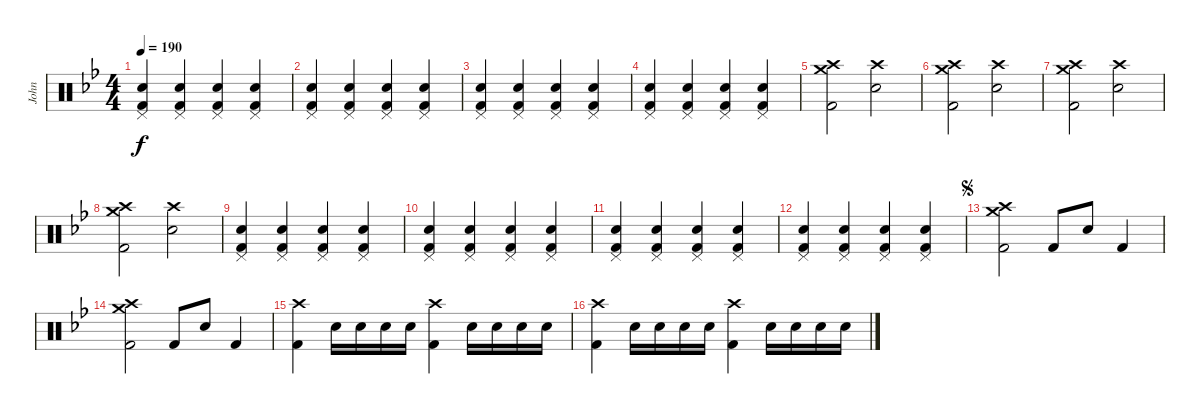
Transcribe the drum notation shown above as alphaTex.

\track ("John" "John") {instrument percussion}
\staff {score}
\articulation defaults
\ts (4 4)
\tempo 190
\clef neutral
\ks bb
("Electric Snare (hit)" "Pedal Hi-Hat (hit)" "Kick (hit) 2").4{dy f} ("Electric Snare (hit)" "Pedal Hi-Hat (hit)" "Kick (hit) 2").4 ("Electric Snare (hit)" "Pedal Hi-Hat (hit)" "Kick (hit) 2").4 ("Electric Snare (hit)" "Pedal Hi-Hat (hit)" "Kick (hit) 2").4 |
("Electric Snare (hit)" "Pedal Hi-Hat (hit)" "Kick (hit) 2").4 ("Electric Snare (hit)" "Pedal Hi-Hat (hit)" "Kick (hit) 2").4 ("Electric Snare (hit)" "Pedal Hi-Hat (hit)" "Kick (hit) 2").4 ("Electric Snare (hit)" "Pedal Hi-Hat (hit)" "Kick (hit) 2").4 |
("Electric Snare (hit)" "Pedal Hi-Hat (hit)" "Kick (hit) 2").4 ("Electric Snare (hit)" "Pedal Hi-Hat (hit)" "Kick (hit) 2").4 ("Electric Snare (hit)" "Pedal Hi-Hat (hit)" "Kick (hit) 2").4 ("Electric Snare (hit)" "Pedal Hi-Hat (hit)" "Kick (hit) 2").4 |
("Electric Snare (hit)" "Pedal Hi-Hat (hit)" "Kick (hit) 2").4 ("Electric Snare (hit)" "Pedal Hi-Hat (hit)" "Kick (hit) 2").4 ("Electric Snare (hit)" "Pedal Hi-Hat (hit)" "Kick (hit) 2").4 ("Electric Snare (hit)" "Pedal Hi-Hat (hit)" "Kick (hit) 2").4 |
("Crash medium (hit)" "Crash high (hit)" "Kick (hit) 2").2 ("Crash high (hit)" "Electric Snare (hit)").2 |
("Crash medium (hit)" "Crash high (hit)" "Kick (hit) 2").2 ("Crash high (hit)" "Electric Snare (hit)").2 |
("Crash medium (hit)" "Crash high (hit)" "Kick (hit) 2").2 ("Crash high (hit)" "Electric Snare (hit)").2 |
("Crash medium (hit)" "Crash high (hit)" "Kick (hit) 2").2 ("Crash high (hit)" "Electric Snare (hit)").2 |
("Electric Snare (hit)" "Pedal Hi-Hat (hit)" "Kick (hit) 2").4 ("Electric Snare (hit)" "Pedal Hi-Hat (hit)" "Kick (hit) 2").4 ("Electric Snare (hit)" "Pedal Hi-Hat (hit)" "Kick (hit) 2").4 ("Electric Snare (hit)" "Pedal Hi-Hat (hit)" "Kick (hit) 2").4 |
("Electric Snare (hit)" "Pedal Hi-Hat (hit)" "Kick (hit) 2").4 ("Electric Snare (hit)" "Pedal Hi-Hat (hit)" "Kick (hit) 2").4 ("Electric Snare (hit)" "Pedal Hi-Hat (hit)" "Kick (hit) 2").4 ("Electric Snare (hit)" "Pedal Hi-Hat (hit)" "Kick (hit) 2").4 |
("Electric Snare (hit)" "Pedal Hi-Hat (hit)" "Kick (hit) 2").4 ("Electric Snare (hit)" "Pedal Hi-Hat (hit)" "Kick (hit) 2").4 ("Electric Snare (hit)" "Pedal Hi-Hat (hit)" "Kick (hit) 2").4 ("Electric Snare (hit)" "Pedal Hi-Hat (hit)" "Kick (hit) 2").4 |
("Electric Snare (hit)" "Pedal Hi-Hat (hit)" "Kick (hit) 2").4 ("Electric Snare (hit)" "Pedal Hi-Hat (hit)" "Kick (hit) 2").4 ("Electric Snare (hit)" "Pedal Hi-Hat (hit)" "Kick (hit) 2").4 ("Electric Snare (hit)" "Pedal Hi-Hat (hit)" "Kick (hit) 2").4 |
\jump segno
("Crash high (hit)" "Crash medium (hit)" "Kick (hit) 2").2 "Kick (hit) 2".8 "Electric Snare (hit)".8 "Kick (hit) 2".4 |
("Crash high (hit)" "Crash medium (hit)" "Kick (hit) 2").2 "Kick (hit) 2".8 "Electric Snare (hit)".8 "Kick (hit) 2".4 |
("Crash high (hit)" "Kick (hit) 2").4 "Electric Snare (hit)".16 "Electric Snare (hit)".16 "Electric Snare (hit)".16 "Electric Snare (hit)".16 ("Crash high (hit)" "Kick (hit) 2").4 "Electric Snare (hit)".16 "Electric Snare (hit)".16 "Electric Snare (hit)".16 "Electric Snare (hit)".16 |
("Crash high (hit)" "Kick (hit) 2").4 "Electric Snare (hit)".16 "Electric Snare (hit)".16 "Electric Snare (hit)".16 "Electric Snare (hit)".16 ("Crash high (hit)" "Kick (hit) 2").4 "Electric Snare (hit)".16 "Electric Snare (hit)".16 "Electric Snare (hit)".16 "Electric Snare (hit)".16
